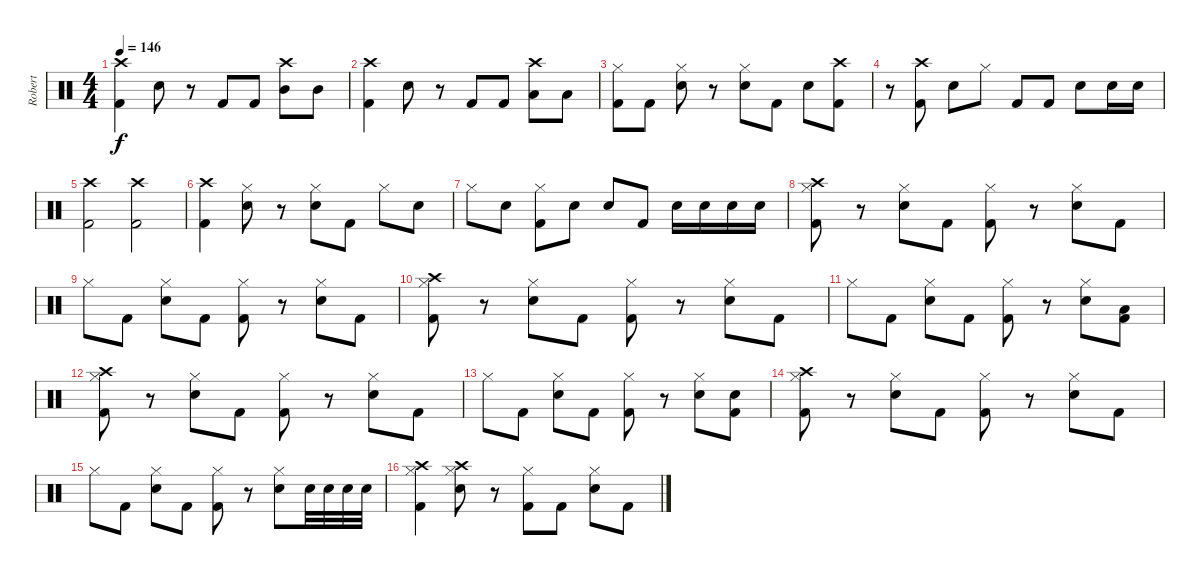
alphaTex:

\track ("Robert" "Robert") {instrument percussion}
\staff {score}
\articulation defaults
\ts (4 4)
\tempo 146
\clef neutral
\ks c
("Crash high (hit)" "Kick (hit) 2").4{dy f} "Electric Snare (hit)".8 r.8 "Kick (hit) 2".8 "Kick (hit) 2".8 ("Crash high (hit)" "Mid Tom (hit)").8 "Mid Tom (hit)".8 |
("Crash high (hit)" "Kick (hit) 2").4 "Electric Snare (hit)".8 r.8 "Kick (hit) 2".8 "Kick (hit) 2".8 ("Crash high (hit)" "Low Tom (hit)").8 "Low Tom (hit)".8 |
("Hi-Hat (closed)" "Kick (hit) 2").8 "Kick (hit) 2".8 ("Hi-Hat (closed)" "Electric Snare (hit)").8 r.8 ("Hi-Hat (closed)" "Electric Snare (hit)").8 "Kick (hit) 2".8 "Electric Snare (hit)".8 ("Crash high (hit)" "Kick (hit) 2").8 |
r.8 ("Crash high (hit)" "Kick (hit) 2").8 "Electric Snare (hit)".8 "Hi-Hat (closed)".8 "Kick (hit) 2".8 "Kick (hit) 2".8 "Electric Snare (hit)".8 "Electric Snare (hit)".16 "Electric Snare (hit)".16 |
("Crash high (hit)" "Kick (hit) 2").2 ("Crash high (hit)" "Kick (hit) 2").2 |
("Crash high (hit)" "Kick (hit) 2").4 ("Hi-Hat (closed)" "Electric Snare (hit)").8 r.8 ("Hi-Hat (closed)" "Electric Snare (hit)").8 "Kick (hit) 2".8 "Hi-Hat (closed)".8 "Electric Snare (hit)".8 |
"Hi-Hat (closed)".8 "Electric Snare (hit)".8 ("Hi-Hat (closed)" "Kick (hit) 2").8 "Electric Snare (hit)".8 "Electric Snare (hit)".8 "Kick (hit) 2".8 "Electric Snare (hit)".16 "Electric Snare (hit)".16 "Electric Snare (hit)".16 "Electric Snare (hit)".16 |
("Crash high (hit)" "Hi-Hat (closed)" "Kick (hit) 2").8 r.8 ("Hi-Hat (closed)" "Electric Snare (hit)").8 "Kick (hit) 2".8 ("Hi-Hat (closed)" "Kick (hit) 2").8 r.8 ("Hi-Hat (closed)" "Electric Snare (hit)").8 "Kick (hit) 2".8 |
"Hi-Hat (closed)".8 "Kick (hit) 2".8 ("Hi-Hat (closed)" "Electric Snare (hit)").8 "Kick (hit) 2".8 ("Hi-Hat (closed)" "Kick (hit) 2").8 r.8 ("Hi-Hat (closed)" "Electric Snare (hit)").8 "Kick (hit) 2".8 |
("Crash high (hit)" "Hi-Hat (closed)" "Kick (hit) 2").8 r.8 ("Hi-Hat (closed)" "Electric Snare (hit)").8 "Kick (hit) 2".8 ("Hi-Hat (closed)" "Kick (hit) 2").8 r.8 ("Hi-Hat (closed)" "Electric Snare (hit)").8 "Kick (hit) 2".8 |
"Hi-Hat (closed)".8 "Kick (hit) 2".8 ("Hi-Hat (closed)" "Electric Snare (hit)").8 "Kick (hit) 2".8 ("Hi-Hat (closed)" "Kick (hit) 2").8 r.8 ("Hi-Hat (closed)" "Electric Snare (hit)").8 ("Low Tom (hit)" "Kick (hit) 2").8 |
("Crash high (hit)" "Hi-Hat (closed)" "Kick (hit) 2").8 r.8 ("Hi-Hat (closed)" "Electric Snare (hit)").8 "Kick (hit) 2".8 ("Hi-Hat (closed)" "Kick (hit) 2").8 r.8 ("Hi-Hat (closed)" "Electric Snare (hit)").8 "Kick (hit) 2".8 |
"Hi-Hat (closed)".8 "Kick (hit) 2".8 ("Hi-Hat (closed)" "Electric Snare (hit)").8 "Kick (hit) 2".8 ("Hi-Hat (closed)" "Kick (hit) 2").8 r.8 ("Hi-Hat (closed)" "Electric Snare (hit)").8 ("Electric Snare (hit)" "Kick (hit) 2").8 |
("Crash high (hit)" "Hi-Hat (closed)" "Kick (hit) 2").8 r.8 ("Hi-Hat (closed)" "Electric Snare (hit)").8 "Kick (hit) 2".8 ("Hi-Hat (closed)" "Kick (hit) 2").8 r.8 ("Hi-Hat (closed)" "Electric Snare (hit)").8 "Kick (hit) 2".8 |
"Hi-Hat (closed)".8 "Kick (hit) 2".8 ("Hi-Hat (closed)" "Electric Snare (hit)").8 "Kick (hit) 2".8 ("Hi-Hat (closed)" "Kick (hit) 2").8 r.8 ("Hi-Hat (closed)" "Electric Snare (hit)").8 "Electric Snare (hit)".32 "Electric Snare (hit)".32 "Electric Snare (hit)".32 "Electric Snare (hit)".32 |
("Crash high (hit)" "Hi-Hat (closed)" "Kick (hit) 2").4 ("Crash high (hit)" "Hi-Hat (closed)" "Electric Snare (hit)").8 r.8 ("Hi-Hat (closed)" "Kick (hit) 2").8 "Kick (hit) 2".8 ("Hi-Hat (closed)" "Electric Snare (hit)").8 "Kick (hit) 2".8
